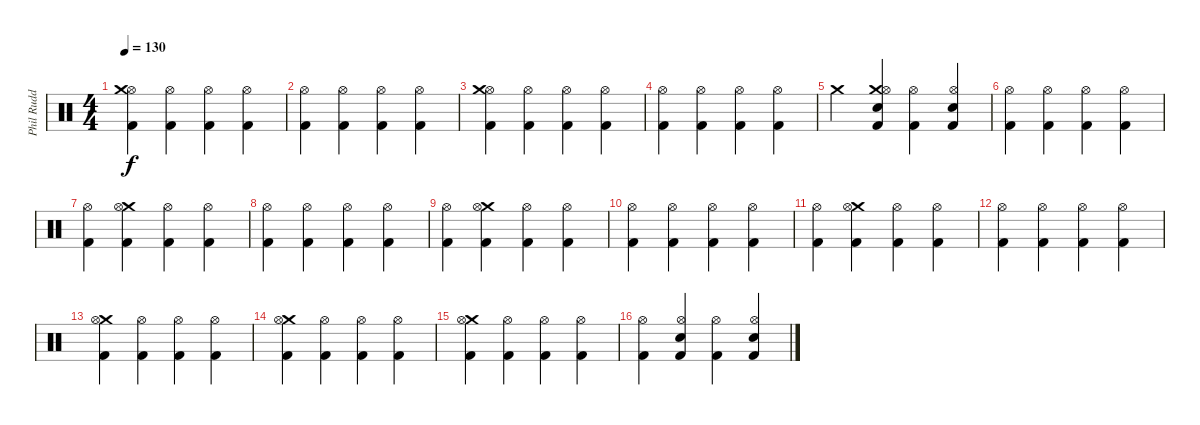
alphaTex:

\track ("Phil Rudd" "Phil Rudd") {instrument percussion}
\staff {score}
\articulation defaults
\ts (4 4)
\tempo 130
\clef neutral
\ks c
("Kick (hit) 2" "Hi-Hat (open)" "Crash medium (hit)").4{dy f} ("Kick (hit) 2" "Hi-Hat (open)").4 ("Kick (hit) 2" "Hi-Hat (open)").4 ("Kick (hit) 2" "Hi-Hat (open)").4 |
("Kick (hit) 2" "Hi-Hat (open)").4 ("Kick (hit) 2" "Hi-Hat (open)").4 ("Kick (hit) 2" "Hi-Hat (open)").4 ("Kick (hit) 2" "Hi-Hat (open)").4 |
("Kick (hit) 2" "Hi-Hat (open)" "Crash medium (hit)").4 ("Kick (hit) 2" "Hi-Hat (open)").4 ("Kick (hit) 2" "Hi-Hat (open)").4 ("Kick (hit) 2" "Hi-Hat (open)").4 |
("Kick (hit) 2" "Hi-Hat (open)").4 ("Kick (hit) 2" "Hi-Hat (open)").4 ("Kick (hit) 2" "Hi-Hat (open)").4 ("Kick (hit) 2" "Hi-Hat (open)").4 |
"Crash medium (hit)"{x}.4 ("Kick (hit) 2" "Crash medium (hit)" "Snare (hit) 2" "Hi-Hat (open)").4 ("Kick (hit) 2" "Hi-Hat (open)").4 ("Kick (hit) 2" "Hi-Hat (open)" "Snare (hit) 2").4 |
("Kick (hit) 2" "Hi-Hat (open)").4 ("Kick (hit) 2" "Hi-Hat (open)").4 ("Kick (hit) 2" "Hi-Hat (open)").4 ("Kick (hit) 2" "Hi-Hat (open)").4 |
("Kick (hit) 2" "Hi-Hat (open)").4 ("Kick (hit) 2" "Crash medium (hit)" "Hi-Hat (open)").4 ("Kick (hit) 2" "Hi-Hat (open)").4 ("Kick (hit) 2" "Hi-Hat (open)").4 |
("Kick (hit) 2" "Hi-Hat (open)").4 ("Kick (hit) 2" "Hi-Hat (open)").4 ("Kick (hit) 2" "Hi-Hat (open)").4 ("Kick (hit) 2" "Hi-Hat (open)").4 |
("Kick (hit) 2" "Hi-Hat (open)").4 ("Kick (hit) 2" "Crash medium (hit)" "Hi-Hat (open)").4 ("Kick (hit) 2" "Hi-Hat (open)").4 ("Kick (hit) 2" "Hi-Hat (open)").4 |
("Kick (hit) 2" "Hi-Hat (open)").4 ("Kick (hit) 2" "Hi-Hat (open)").4 ("Kick (hit) 2" "Hi-Hat (open)").4 ("Kick (hit) 2" "Hi-Hat (open)").4 |
("Kick (hit) 2" "Hi-Hat (open)").4 ("Kick (hit) 2" "Crash medium (hit)" "Hi-Hat (open)").4 ("Kick (hit) 2" "Hi-Hat (open)").4 ("Kick (hit) 2" "Hi-Hat (open)").4 |
("Kick (hit) 2" "Hi-Hat (open)").4 ("Kick (hit) 2" "Hi-Hat (open)").4 ("Kick (hit) 2" "Hi-Hat (open)").4 ("Kick (hit) 2" "Hi-Hat (open)").4 |
("Kick (hit) 2" "Crash medium (hit)" "Hi-Hat (open)").4 ("Kick (hit) 2" "Hi-Hat (open)").4 ("Kick (hit) 2" "Hi-Hat (open)").4 ("Kick (hit) 2" "Hi-Hat (open)").4 |
("Kick (hit) 2" "Crash medium (hit)" "Hi-Hat (open)").4 ("Kick (hit) 2" "Hi-Hat (open)").4 ("Kick (hit) 2" "Hi-Hat (open)").4 ("Kick (hit) 2" "Hi-Hat (open)").4 |
("Kick (hit) 2" "Crash medium (hit)" "Hi-Hat (open)").4 ("Kick (hit) 2" "Hi-Hat (open)").4 ("Kick (hit) 2" "Hi-Hat (open)").4 ("Kick (hit) 2" "Hi-Hat (open)").4 |
("Kick (hit) 2" "Hi-Hat (open)").4 ("Kick (hit) 2" "Snare (hit) 2" "Hi-Hat (open)").4 ("Kick (hit) 2" "Hi-Hat (open)").4 ("Kick (hit) 2" "Snare (hit) 2" "Hi-Hat (open)").4
